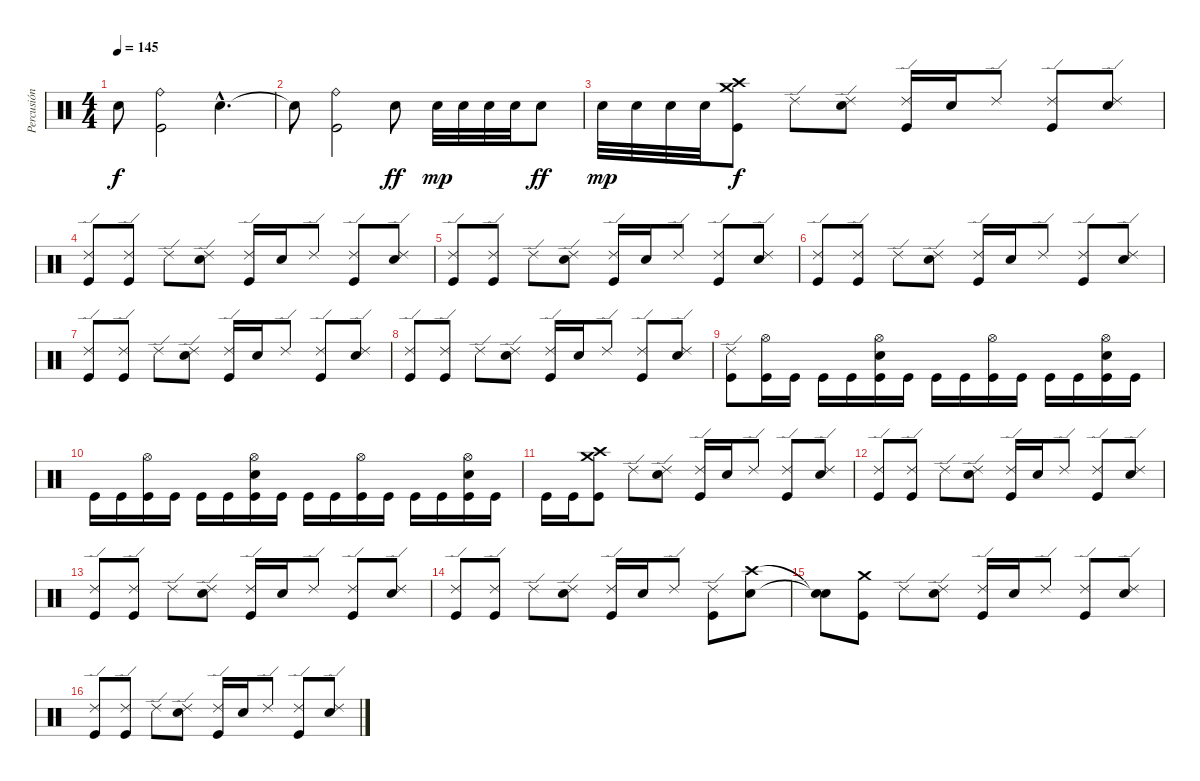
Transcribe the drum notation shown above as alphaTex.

\track ("Percusión" "Percusión") {instrument percussion}
\staff {score}
\articulation defaults
\ts (4 4)
\tempo 145
\clef neutral
\ks c "Snare (hit)"{t}.8{dy f}
("Ride (bell)" "Kick (hit)").2 "Snare (hit) 2"{hac}.4{d} |
"Snare (hit)"{t}.8 ("Ride (bell)" "Kick (hit)").2 "Snare (hit) 2".8{dy ff} "Snare (hit) 2".32{dy mp} "Snare (hit) 2".32 "Snare (hit) 2".32 "Snare (hit) 2".32 "Snare (hit) 2".8{dy ff} |
"Snare (hit) 2".32{dy mp} "Snare (hit) 2".32 "Snare (hit) 2".32 "Snare (hit) 2".32 ("Crash high (hit)" "Crash medium (hit)" "Kick (hit)").8{dy f} "Ride (edge) 2".8 ("Ride (edge) 2" "Snare (hit) 2").8 ("Ride (edge) 2" "Kick (hit)").16 "Snare (hit) 2".16 "Ride (edge) 2".8 ("Ride (edge) 2" "Kick (hit)").8 ("Ride (edge) 2" "Snare (hit) 2").8 |
("Ride (edge) 2" "Kick (hit)").8 ("Ride (edge) 2" "Kick (hit)").8 "Ride (edge) 2".8 ("Ride (edge) 2" "Snare (hit) 2").8 ("Ride (edge) 2" "Kick (hit)").16 "Snare (hit) 2".16 "Ride (edge) 2".8 ("Ride (edge) 2" "Kick (hit)").8 ("Ride (edge) 2" "Snare (hit) 2").8 |
("Ride (edge) 2" "Kick (hit)").8 ("Ride (edge) 2" "Kick (hit)").8 "Ride (edge) 2".8 ("Ride (edge) 2" "Snare (hit) 2").8 ("Ride (edge) 2" "Kick (hit)").16 "Snare (hit) 2".16 "Ride (edge) 2".8 ("Ride (edge) 2" "Kick (hit)").8 ("Ride (edge) 2" "Snare (hit) 2").8 |
("Ride (edge) 2" "Kick (hit)").8 ("Ride (edge) 2" "Kick (hit)").8 "Ride (edge) 2".8 ("Ride (edge) 2" "Snare (hit) 2").8 ("Ride (edge) 2" "Kick (hit)").16 "Snare (hit) 2".16 "Ride (edge) 2".8 ("Ride (edge) 2" "Kick (hit)").8 ("Ride (edge) 2" "Snare (hit) 2").8 |
("Ride (edge) 2" "Kick (hit)").8 ("Ride (edge) 2" "Kick (hit)").8 "Ride (edge) 2".8 ("Ride (edge) 2" "Snare (hit) 2").8 ("Ride (edge) 2" "Kick (hit)").16 "Snare (hit) 2".16 "Ride (edge) 2".8 ("Ride (edge) 2" "Kick (hit)").8 ("Ride (edge) 2" "Snare (hit) 2").8 |
("Ride (edge) 2" "Kick (hit)").8 ("Ride (edge) 2" "Kick (hit)").8 "Ride (edge) 2".8 ("Ride (edge) 2" "Snare (hit) 2").8 ("Ride (edge) 2" "Kick (hit)").16 "Snare (hit) 2".16 "Ride (edge) 2".8 ("Ride (edge) 2" "Kick (hit)").8 ("Ride (edge) 2" "Snare (hit) 2").8 |
("Ride (edge) 2" "Kick (hit)").8 ("Hi-Hat (open)" "Kick (hit)").16 "Kick (hit)".16 "Kick (hit)".16 "Kick (hit)".16 ("Hi-Hat (open)" "Snare (hit) 2" "Kick (hit)").16 "Kick (hit)".16 "Kick (hit)".16 "Kick (hit)".16 ("Hi-Hat (open)" "Kick (hit)").16 "Kick (hit)".16 "Kick (hit)".16 "Kick (hit)".16 ("Hi-Hat (open)" "Snare (hit) 2" "Kick (hit)").16 "Kick (hit)".16 |
"Kick (hit)".16 "Kick (hit)".16 ("Hi-Hat (open)" "Kick (hit)").16 "Kick (hit)".16 "Kick (hit)".16 "Kick (hit)".16 ("Hi-Hat (open)" "Snare (hit) 2" "Kick (hit)").16 "Kick (hit)".16 "Kick (hit)".16 "Kick (hit)".16 ("Hi-Hat (open)" "Kick (hit)").16 "Kick (hit)".16 "Kick (hit)".16 "Kick (hit)".16 ("Hi-Hat (open)" "Snare (hit) 2" "Kick (hit)").16 "Kick (hit)".16 |
"Kick (hit)".16 "Kick (hit)".16 ("Crash high (hit)" "Crash medium (hit)" "Kick (hit)").8 "Ride (edge) 2".8 ("Ride (edge) 2" "Snare (hit) 2").8 ("Ride (edge) 2" "Kick (hit)").16 "Snare (hit) 2".16 "Ride (edge) 2".8 ("Ride (edge) 2" "Kick (hit)").8 ("Ride (edge) 2" "Snare (hit) 2").8 |
("Ride (edge) 2" "Kick (hit)").8 ("Ride (edge) 2" "Kick (hit)").8 "Ride (edge) 2".8 ("Ride (edge) 2" "Snare (hit) 2").8 ("Ride (edge) 2" "Kick (hit)").16 "Snare (hit) 2".16 "Ride (edge) 2".8 ("Ride (edge) 2" "Kick (hit)").8 ("Ride (edge) 2" "Snare (hit) 2").8 |
("Ride (edge) 2" "Kick (hit)").8 ("Ride (edge) 2" "Kick (hit)").8 "Ride (edge) 2".8 ("Ride (edge) 2" "Snare (hit) 2").8 ("Ride (edge) 2" "Kick (hit)").16 "Snare (hit) 2".16 "Ride (edge) 2".8 ("Ride (edge) 2" "Kick (hit)").8 ("Ride (edge) 2" "Snare (hit) 2").8 |
("Ride (edge) 2" "Kick (hit)").8 ("Ride (edge) 2" "Kick (hit)").8 "Ride (edge) 2".8 ("Ride (edge) 2" "Snare (hit) 2").8 ("Ride (edge) 2" "Kick (hit)").16 "Snare (hit) 2".16 "Ride (edge) 2".8 ("Ride (edge) 2" "Kick (hit)").8 ("Crash high (hit)" "Snare (hit) 2").8 |
("Snare (hit)"{t} "Snare (hit)"{t}).8 ("Crash medium (hit)" "Kick (hit)").8 "Ride (edge) 2".8 ("Ride (edge) 2" "Snare (hit) 2").8 ("Ride (edge) 2" "Kick (hit)").16 "Snare (hit) 2".16 "Ride (edge) 2".8 ("Ride (edge) 2" "Kick (hit)").8 ("Ride (edge) 2" "Snare (hit) 2").8 |
("Ride (edge) 2" "Kick (hit)").8 ("Ride (edge) 2" "Kick (hit)").8 "Ride (edge) 2".8 ("Ride (edge) 2" "Snare (hit) 2").8 ("Ride (edge) 2" "Kick (hit)").16 "Snare (hit) 2".16 "Ride (edge) 2".8 ("Ride (edge) 2" "Kick (hit)").8 ("Ride (edge) 2" "Snare (hit) 2").8
